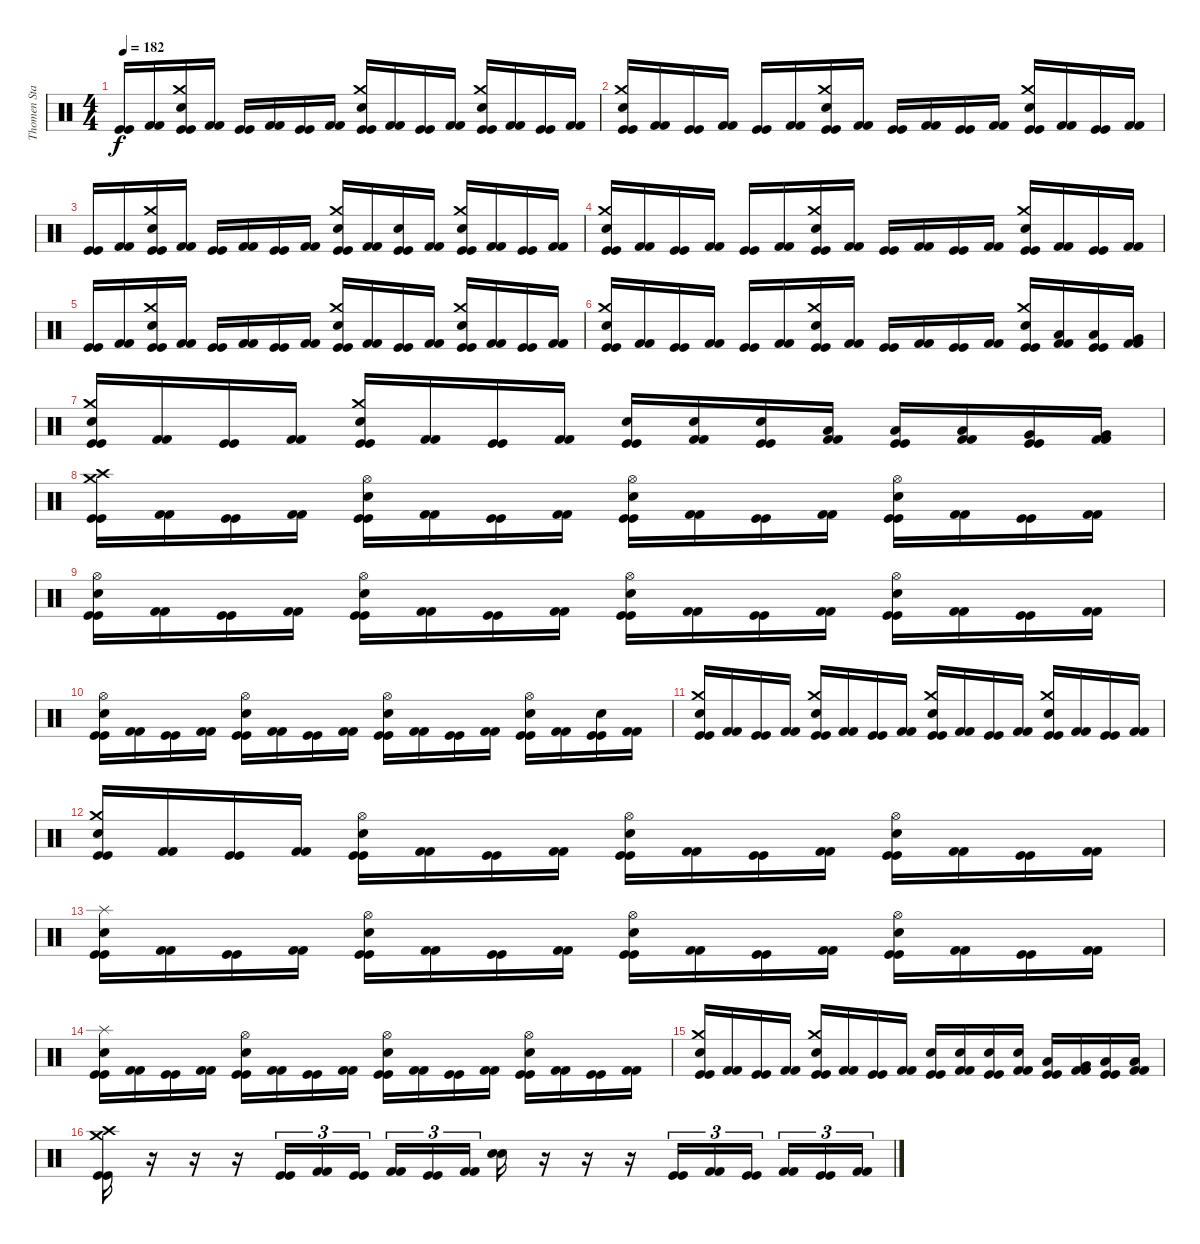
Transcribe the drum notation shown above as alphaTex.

\track ("Thomen Stauch" "Thomen Sta") {instrument percussion}
\staff {score}
\articulation defaults
\ts (4 4)
\tempo 182
\clef neutral
\ks c
("Kick (hit)" "Kick (hit)").16{dy f} ("Kick (hit) 2" "Kick (hit) 2").16 ("Crash medium (hit)" "Snare (hit) 2" "Kick (hit)" "Kick (hit)").16 ("Kick (hit) 2" "Kick (hit) 2").16 ("Kick (hit)" "Kick (hit)").16 ("Kick (hit) 2" "Kick (hit) 2").16 ("Kick (hit)" "Kick (hit)").16 ("Kick (hit) 2" "Kick (hit) 2").16 ("Crash medium (hit)" "Snare (hit) 2" "Kick (hit)" "Kick (hit)").16 ("Kick (hit) 2" "Kick (hit) 2").16 ("Kick (hit)" "Kick (hit)").16 ("Kick (hit) 2" "Kick (hit) 2").16 ("Crash medium (hit)" "Snare (hit) 2" "Kick (hit)" "Kick (hit)").16 ("Kick (hit) 2" "Kick (hit) 2").16 ("Kick (hit)" "Kick (hit)").16 ("Kick (hit) 2" "Kick (hit) 2").16 |
("Crash medium (hit)" "Snare (hit) 2" "Kick (hit)" "Kick (hit)").16 ("Kick (hit) 2" "Kick (hit) 2").16 ("Kick (hit)" "Kick (hit)").16 ("Kick (hit) 2" "Kick (hit) 2").16 ("Kick (hit)" "Kick (hit)").16 ("Kick (hit) 2" "Kick (hit) 2").16 ("Crash medium (hit)" "Snare (hit) 2" "Kick (hit)" "Kick (hit)").16 ("Kick (hit) 2" "Kick (hit) 2").16 ("Kick (hit)" "Kick (hit)").16 ("Kick (hit) 2" "Kick (hit) 2").16 ("Kick (hit)" "Kick (hit)").16 ("Kick (hit) 2" "Kick (hit) 2").16 ("Crash medium (hit)" "Snare (hit) 2" "Kick (hit)" "Kick (hit)").16 ("Kick (hit) 2" "Kick (hit) 2").16 ("Kick (hit)" "Kick (hit)").16 ("Kick (hit) 2" "Kick (hit) 2").16 |
("Kick (hit)" "Kick (hit)").16 ("Kick (hit) 2" "Kick (hit) 2").16 ("Crash medium (hit)" "Snare (hit) 2" "Kick (hit)" "Kick (hit)").16 ("Kick (hit) 2" "Kick (hit) 2").16 ("Kick (hit)" "Kick (hit)").16 ("Kick (hit) 2" "Kick (hit) 2").16 ("Kick (hit)" "Kick (hit)").16 ("Kick (hit) 2" "Kick (hit) 2").16 ("Crash medium (hit)" "Snare (hit) 2" "Kick (hit)" "Kick (hit)").16 ("Kick (hit) 2" "Kick (hit) 2").16 ("Snare (hit) 2" "Kick (hit)" "Kick (hit)").16 ("Kick (hit) 2" "Kick (hit) 2").16 ("Crash medium (hit)" "Snare (hit) 2" "Kick (hit)" "Kick (hit)").16 ("Kick (hit) 2" "Kick (hit) 2").16 ("Kick (hit)" "Kick (hit)").16 ("Kick (hit) 2" "Kick (hit) 2").16 |
("Crash medium (hit)" "Snare (hit) 2" "Kick (hit)" "Kick (hit)").16 ("Kick (hit) 2" "Kick (hit) 2").16 ("Kick (hit)" "Kick (hit)").16 ("Kick (hit) 2" "Kick (hit) 2").16 ("Kick (hit)" "Kick (hit)").16 ("Kick (hit) 2" "Kick (hit) 2").16 ("Crash medium (hit)" "Snare (hit) 2" "Kick (hit)" "Kick (hit)").16 ("Kick (hit) 2" "Kick (hit) 2").16 ("Kick (hit)" "Kick (hit)").16 ("Kick (hit) 2" "Kick (hit) 2").16 ("Kick (hit)" "Kick (hit)").16 ("Kick (hit) 2" "Kick (hit) 2").16 ("Crash medium (hit)" "Snare (hit) 2" "Kick (hit)" "Kick (hit)").16 ("Kick (hit) 2" "Kick (hit) 2").16 ("Kick (hit)" "Kick (hit)").16 ("Kick (hit) 2" "Kick (hit) 2").16 |
("Kick (hit)" "Kick (hit)").16 ("Kick (hit) 2" "Kick (hit) 2").16 ("Crash medium (hit)" "Snare (hit) 2" "Kick (hit)" "Kick (hit)").16 ("Kick (hit) 2" "Kick (hit) 2").16 ("Kick (hit)" "Kick (hit)").16 ("Kick (hit) 2" "Kick (hit) 2").16 ("Kick (hit)" "Kick (hit)").16 ("Kick (hit) 2" "Kick (hit) 2").16 ("Crash medium (hit)" "Snare (hit) 2" "Kick (hit)" "Kick (hit)").16 ("Kick (hit) 2" "Kick (hit) 2").16 ("Kick (hit)" "Kick (hit)").16 ("Kick (hit) 2" "Kick (hit) 2").16 ("Crash medium (hit)" "Snare (hit) 2" "Kick (hit)" "Kick (hit)").16 ("Kick (hit) 2" "Kick (hit) 2").16 ("Kick (hit)" "Kick (hit)").16 ("Kick (hit) 2" "Kick (hit) 2").16 |
("Crash medium (hit)" "Snare (hit) 2" "Kick (hit)" "Kick (hit)").16 ("Kick (hit) 2" "Kick (hit) 2").16 ("Kick (hit)" "Kick (hit)").16 ("Kick (hit) 2" "Kick (hit) 2").16 ("Kick (hit)" "Kick (hit)").16 ("Kick (hit) 2" "Kick (hit) 2").16 ("Crash medium (hit)" "Snare (hit) 2" "Kick (hit)" "Kick (hit)").16 ("Kick (hit) 2" "Kick (hit) 2").16 ("Kick (hit)" "Kick (hit)").16 ("Kick (hit) 2" "Kick (hit) 2").16 ("Kick (hit)" "Kick (hit)").16 ("Kick (hit) 2" "Kick (hit) 2").16 ("Crash medium (hit)" "Snare (hit) 2" "Kick (hit)" "Kick (hit)").16 ("Low Tom (hit)" "Kick (hit) 2" "Kick (hit) 2").16 ("Low Tom (hit)" "Kick (hit)" "Kick (hit)").16 ("Very Low Tom (hit)" "Kick (hit) 2" "Kick (hit) 2").16 |
("Crash medium (hit)" "Snare (hit) 2" "Kick (hit)" "Kick (hit)").16 ("Kick (hit) 2" "Kick (hit) 2").16 ("Kick (hit)" "Kick (hit)").16 ("Kick (hit) 2" "Kick (hit) 2").16 ("Crash medium (hit)" "Snare (hit) 2" "Kick (hit)" "Kick (hit)").16 ("Kick (hit) 2" "Kick (hit) 2").16 ("Kick (hit)" "Kick (hit)").16 ("Kick (hit) 2" "Kick (hit) 2").16 ("Snare (hit) 2" "Kick (hit)" "Kick (hit)").16 ("Snare (hit) 2" "Kick (hit) 2" "Kick (hit) 2").16 ("Snare (hit) 2" "Kick (hit)" "Kick (hit)").16 ("Low Tom (hit)" "Kick (hit) 2" "Kick (hit) 2").16 ("Low Tom (hit)" "Kick (hit)" "Kick (hit)").16 ("Low Tom (hit)" "Kick (hit) 2" "Kick (hit) 2").16 ("Very Low Tom (hit)" "Kick (hit)" "Kick (hit)").16 ("Very Low Tom (hit)" "Kick (hit) 2" "Kick (hit) 2").16 |
("Crash medium (hit)" "Crash high (hit)" "Kick (hit)" "Kick (hit)").16 ("Kick (hit) 2" "Kick (hit) 2").16 ("Kick (hit)" "Kick (hit)").16 ("Kick (hit) 2" "Kick (hit) 2").16 ("Hi-Hat (open)" "Snare (hit) 2" "Kick (hit)" "Kick (hit)").16 ("Kick (hit) 2" "Kick (hit) 2").16 ("Kick (hit)" "Kick (hit)").16 ("Kick (hit) 2" "Kick (hit) 2").16 ("Hi-Hat (open)" "Snare (hit) 2" "Kick (hit)" "Kick (hit)").16 ("Kick (hit) 2" "Kick (hit) 2").16 ("Kick (hit)" "Kick (hit)").16 ("Kick (hit) 2" "Kick (hit) 2").16 ("Hi-Hat (open)" "Snare (hit) 2" "Kick (hit)" "Kick (hit)").16 ("Kick (hit) 2" "Kick (hit) 2").16 ("Kick (hit)" "Kick (hit)").16 ("Kick (hit) 2" "Kick (hit) 2").16 |
("Hi-Hat (open)" "Snare (hit) 2" "Kick (hit)" "Kick (hit)").16 ("Kick (hit) 2" "Kick (hit) 2").16 ("Kick (hit)" "Kick (hit)").16 ("Kick (hit) 2" "Kick (hit) 2").16 ("Hi-Hat (open)" "Snare (hit) 2" "Kick (hit)" "Kick (hit)").16 ("Kick (hit) 2" "Kick (hit) 2").16 ("Kick (hit)" "Kick (hit)").16 ("Kick (hit) 2" "Kick (hit) 2").16 ("Hi-Hat (open)" "Snare (hit) 2" "Kick (hit)" "Kick (hit)").16 ("Kick (hit) 2" "Kick (hit) 2").16 ("Kick (hit)" "Kick (hit)").16 ("Kick (hit) 2" "Kick (hit) 2").16 ("Hi-Hat (open)" "Snare (hit) 2" "Kick (hit)" "Kick (hit)").16 ("Kick (hit) 2" "Kick (hit) 2").16 ("Kick (hit)" "Kick (hit)").16 ("Kick (hit) 2" "Kick (hit) 2").16 |
("Hi-Hat (open)" "Snare (hit) 2" "Kick (hit)" "Kick (hit)").16 ("Kick (hit) 2" "Kick (hit) 2").16 ("Kick (hit)" "Kick (hit)").16 ("Kick (hit) 2" "Kick (hit) 2").16 ("Hi-Hat (open)" "Snare (hit) 2" "Kick (hit)" "Kick (hit)").16 ("Kick (hit) 2" "Kick (hit) 2").16 ("Kick (hit)" "Kick (hit)").16 ("Kick (hit) 2" "Kick (hit) 2").16 ("Hi-Hat (open)" "Snare (hit) 2" "Kick (hit)" "Kick (hit)").16 ("Kick (hit) 2" "Kick (hit) 2").16 ("Kick (hit)" "Kick (hit)").16 ("Kick (hit) 2" "Kick (hit) 2").16 ("Hi-Hat (open)" "Snare (hit) 2" "Kick (hit)" "Kick (hit)").16 ("Kick (hit) 2" "Kick (hit) 2").16 ("Snare (hit) 2" "Kick (hit)" "Kick (hit)").16 ("Kick (hit) 2" "Kick (hit) 2").16 |
("Crash medium (hit)" "Snare (hit) 2" "Kick (hit)" "Kick (hit)").16 ("Kick (hit) 2" "Kick (hit) 2").16 ("Kick (hit)" "Kick (hit)").16 ("Kick (hit) 2" "Kick (hit) 2").16 ("Crash medium (hit)" "Snare (hit) 2" "Kick (hit)" "Kick (hit)").16 ("Kick (hit) 2" "Kick (hit) 2").16 ("Kick (hit)" "Kick (hit)").16 ("Kick (hit) 2" "Kick (hit) 2").16 ("Crash medium (hit)" "Snare (hit) 2" "Kick (hit)" "Kick (hit)").16 ("Kick (hit) 2" "Kick (hit) 2").16 ("Kick (hit)" "Kick (hit)").16 ("Kick (hit) 2" "Kick (hit) 2").16 ("Crash medium (hit)" "Snare (hit) 2" "Kick (hit)" "Kick (hit)").16 ("Kick (hit) 2" "Kick (hit) 2").16 ("Kick (hit)" "Kick (hit)").16 ("Kick (hit) 2" "Kick (hit) 2").16 |
("Crash medium (hit)" "Snare (hit) 2" "Kick (hit)" "Kick (hit)").16 ("Kick (hit) 2" "Kick (hit) 2").16 ("Kick (hit)" "Kick (hit)").16 ("Kick (hit) 2" "Kick (hit) 2").16 ("Hi-Hat (open)" "Snare (hit) 2" "Kick (hit)" "Kick (hit)").16 ("Kick (hit) 2" "Kick (hit) 2").16 ("Kick (hit)" "Kick (hit)").16 ("Kick (hit) 2" "Kick (hit) 2").16 ("Hi-Hat (open)" "Snare (hit) 2" "Kick (hit)" "Kick (hit)").16 ("Kick (hit) 2" "Kick (hit) 2").16 ("Kick (hit)" "Kick (hit)").16 ("Kick (hit) 2" "Kick (hit) 2").16 ("Hi-Hat (open)" "Snare (hit) 2" "Kick (hit)" "Kick (hit)").16 ("Kick (hit) 2" "Kick (hit) 2").16 ("Kick (hit)" "Kick (hit)").16 ("Kick (hit) 2" "Kick (hit) 2").16 |
("Splash (hit)" "Snare (hit) 2" "Kick (hit)" "Kick (hit)").16 ("Kick (hit) 2" "Kick (hit) 2").16 ("Kick (hit)" "Kick (hit)").16 ("Kick (hit) 2" "Kick (hit) 2").16 ("Hi-Hat (open)" "Snare (hit) 2" "Kick (hit)" "Kick (hit)").16 ("Kick (hit) 2" "Kick (hit) 2").16 ("Kick (hit)" "Kick (hit)").16 ("Kick (hit) 2" "Kick (hit) 2").16 ("Hi-Hat (open)" "Snare (hit) 2" "Kick (hit)" "Kick (hit)").16 ("Kick (hit) 2" "Kick (hit) 2").16 ("Kick (hit)" "Kick (hit)").16 ("Kick (hit) 2" "Kick (hit) 2").16 ("Hi-Hat (open)" "Snare (hit) 2" "Kick (hit)" "Kick (hit)").16 ("Kick (hit) 2" "Kick (hit) 2").16 ("Kick (hit)" "Kick (hit)").16 ("Kick (hit) 2" "Kick (hit) 2").16 |
("Splash (hit)" "Snare (hit) 2" "Kick (hit)" "Kick (hit)").16 ("Kick (hit) 2" "Kick (hit) 2").16 ("Kick (hit)" "Kick (hit)").16 ("Kick (hit) 2" "Kick (hit) 2").16 ("Hi-Hat (open)" "Snare (hit) 2" "Kick (hit)" "Kick (hit)").16 ("Kick (hit) 2" "Kick (hit) 2").16 ("Kick (hit)" "Kick (hit)").16 ("Kick (hit) 2" "Kick (hit) 2").16 ("Hi-Hat (open)" "Snare (hit) 2" "Kick (hit)" "Kick (hit)").16 ("Kick (hit) 2" "Kick (hit) 2").16 ("Kick (hit)" "Kick (hit)").16 ("Kick (hit) 2" "Kick (hit) 2").16 ("Hi-Hat (open)" "Snare (hit) 2" "Kick (hit)" "Kick (hit)").16 ("Kick (hit) 2" "Kick (hit) 2").16 ("Kick (hit)" "Kick (hit)").16 ("Kick (hit) 2" "Kick (hit) 2").16 |
("Crash medium (hit)" "Snare (hit) 2" "Kick (hit)" "Kick (hit)").16 ("Kick (hit) 2" "Kick (hit) 2").16 ("Kick (hit)" "Kick (hit)").16 ("Kick (hit) 2" "Kick (hit) 2").16 ("Crash medium (hit)" "Snare (hit) 2" "Kick (hit)" "Kick (hit)").16 ("Kick (hit) 2" "Kick (hit) 2").16 ("Kick (hit)" "Kick (hit)").16 ("Kick (hit) 2" "Kick (hit) 2").16 ("Snare (hit) 2" "Kick (hit)" "Kick (hit)").16 ("Snare (hit) 2" "Kick (hit) 2" "Kick (hit) 2").16 ("Snare (hit) 2" "Kick (hit)" "Kick (hit)").16 ("Snare (hit) 2" "Kick (hit) 2" "Kick (hit) 2").16 ("Low Tom (hit)" "Kick (hit)" "Kick (hit)").16 ("Very Low Tom (hit)" "Kick (hit) 2" "Kick (hit) 2").16 ("Low Floor Tom (hit)" "Kick (hit)" "Kick (hit)").16 ("Low Floor Tom (hit)" "Kick (hit) 2" "Kick (hit) 2").16 |
("Crash medium (hit)" "Crash high (hit)" "Kick (hit)" "Kick (hit)").16 r.16 r.16 r.16 ("Kick (hit)" "Kick (hit)").16{tu (3 2)} ("Kick (hit) 2" "Kick (hit) 2").16{tu (3 2)} ("Kick (hit)" "Kick (hit)").16{tu (3 2)} ("Kick (hit) 2" "Kick (hit) 2").16{tu (3 2)} ("Kick (hit)" "Kick (hit)").16{tu (3 2)} ("Kick (hit) 2" "Kick (hit) 2").16{tu (3 2)} ("Snare (hit) 2" "Snare (hit) 2").16 r.16 r.16 r.16 ("Kick (hit)" "Kick (hit)").16{tu (3 2)} ("Kick (hit) 2" "Kick (hit) 2").16{tu (3 2)} ("Kick (hit)" "Kick (hit)").16{tu (3 2)} ("Kick (hit) 2" "Kick (hit) 2").16{tu (3 2)} ("Kick (hit)" "Kick (hit)").16{tu (3 2)} ("Kick (hit) 2" "Kick (hit) 2").16{tu (3 2)}
